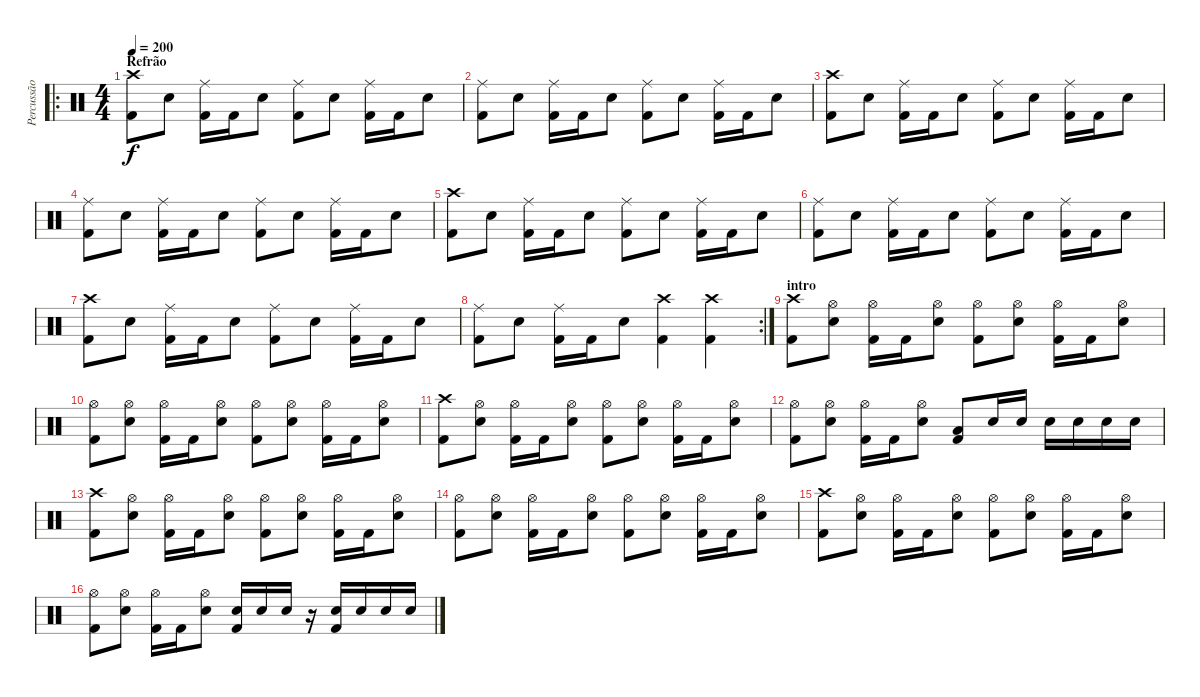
\track ("Percussão" "Percussão") {instrument percussion}
\staff {score}
\articulation defaults
\ro
\ts (4 4)
\section ("" "Refrão")
\tempo 200
\clef neutral
\ks c
("Crash high (hit)" "Kick (hit) 2").8{dy f} "Snare (hit) 2".8 ("Ride (middle)" "Kick (hit) 2").16 "Kick (hit) 2".16 "Snare (hit) 2".8 ("Ride (middle)" "Kick (hit) 2").8 "Snare (hit) 2".8 ("Ride (middle)" "Kick (hit) 2").16 "Kick (hit) 2".16 "Snare (hit) 2".8 |
("Ride (middle)" "Kick (hit) 2").8 "Snare (hit) 2".8 ("Ride (middle)" "Kick (hit) 2").16 "Kick (hit) 2".16 "Snare (hit) 2".8 ("Ride (middle)" "Kick (hit) 2").8 "Snare (hit) 2".8 ("Ride (middle)" "Kick (hit) 2").16 "Kick (hit) 2".16 "Snare (hit) 2".8 |
("Crash high (hit)" "Kick (hit) 2").8 "Snare (hit) 2".8 ("Ride (middle)" "Kick (hit) 2").16 "Kick (hit) 2".16 "Snare (hit) 2".8 ("Ride (middle)" "Kick (hit) 2").8 "Snare (hit) 2".8 ("Ride (middle)" "Kick (hit) 2").16 "Kick (hit) 2".16 "Snare (hit) 2".8 |
("Ride (middle)" "Kick (hit) 2").8 "Snare (hit) 2".8 ("Ride (middle)" "Kick (hit) 2").16 "Kick (hit) 2".16 "Snare (hit) 2".8 ("Ride (middle)" "Kick (hit) 2").8 "Snare (hit) 2".8 ("Ride (middle)" "Kick (hit) 2").16 "Kick (hit) 2".16 "Snare (hit) 2".8 |
("Crash high (hit)" "Kick (hit) 2").8 "Snare (hit) 2".8 ("Ride (middle)" "Kick (hit) 2").16 "Kick (hit) 2".16 "Snare (hit) 2".8 ("Ride (middle)" "Kick (hit) 2").8 "Snare (hit) 2".8 ("Ride (middle)" "Kick (hit) 2").16 "Kick (hit) 2".16 "Snare (hit) 2".8 |
("Ride (middle)" "Kick (hit) 2").8 "Snare (hit) 2".8 ("Ride (middle)" "Kick (hit) 2").16 "Kick (hit) 2".16 "Snare (hit) 2".8 ("Ride (middle)" "Kick (hit) 2").8 "Snare (hit) 2".8 ("Ride (middle)" "Kick (hit) 2").16 "Kick (hit) 2".16 "Snare (hit) 2".8 |
("Crash high (hit)" "Kick (hit) 2").8 "Snare (hit) 2".8 ("Ride (middle)" "Kick (hit) 2").16 "Kick (hit) 2".16 "Snare (hit) 2".8 ("Ride (middle)" "Kick (hit) 2").8 "Snare (hit) 2".8 ("Ride (middle)" "Kick (hit) 2").16 "Kick (hit) 2".16 "Snare (hit) 2".8 |
\rc 2
("Ride (middle)" "Kick (hit) 2").8 "Snare (hit) 2".8 ("Ride (middle)" "Kick (hit) 2").16 "Kick (hit) 2".16 "Snare (hit) 2".8 ("Crash high (hit)" "Kick (hit) 2").4 ("Crash high (hit)" "Kick (hit) 2").4 |
\section ("" "intro")
("Crash high (hit)" "Kick (hit) 2").8 ("Hi-Hat (open)" "Snare (hit) 2").8 ("Hi-Hat (open)" "Kick (hit) 2").16 "Kick (hit) 2".16 ("Hi-Hat (open)" "Snare (hit) 2").8 ("Hi-Hat (open)" "Kick (hit) 2").8 ("Hi-Hat (open)" "Snare (hit) 2").8 ("Hi-Hat (open)" "Kick (hit) 2").16 "Kick (hit) 2".16 ("Hi-Hat (open)" "Snare (hit) 2").8 |
("Hi-Hat (open)" "Kick (hit) 2").8 ("Hi-Hat (open)" "Snare (hit) 2").8 ("Hi-Hat (open)" "Kick (hit) 2").16 "Kick (hit) 2".16 ("Hi-Hat (open)" "Snare (hit) 2").8 ("Hi-Hat (open)" "Kick (hit) 2").8 ("Hi-Hat (open)" "Snare (hit) 2").8 ("Hi-Hat (open)" "Kick (hit) 2").16 "Kick (hit) 2".16 ("Hi-Hat (open)" "Snare (hit) 2").8 |
("Crash high (hit)" "Kick (hit) 2").8 ("Hi-Hat (open)" "Snare (hit) 2").8 ("Hi-Hat (open)" "Kick (hit) 2").16 "Kick (hit) 2".16 ("Hi-Hat (open)" "Snare (hit) 2").8 ("Hi-Hat (open)" "Kick (hit) 2").8 ("Hi-Hat (open)" "Snare (hit) 2").8 ("Hi-Hat (open)" "Kick (hit) 2").16 "Kick (hit) 2".16 ("Hi-Hat (open)" "Snare (hit) 2").8 |
("Hi-Hat (open)" "Kick (hit) 2").8 ("Hi-Hat (open)" "Snare (hit) 2").8 ("Hi-Hat (open)" "Kick (hit) 2").16 "Kick (hit) 2".16 ("Hi-Hat (open)" "Snare (hit) 2").8 ("Low Tom (hit)" "Kick (hit) 2").8 "Snare (hit) 2".16 "Snare (hit) 2".16 "Snare (hit) 2".16 "Snare (hit) 2".16 "Snare (hit) 2".16 "Snare (hit) 2".16 |
("Crash high (hit)" "Kick (hit) 2").8 ("Hi-Hat (open)" "Snare (hit) 2").8 ("Hi-Hat (open)" "Kick (hit) 2").16 "Kick (hit) 2".16 ("Hi-Hat (open)" "Snare (hit) 2").8 ("Hi-Hat (open)" "Kick (hit) 2").8 ("Hi-Hat (open)" "Snare (hit) 2").8 ("Hi-Hat (open)" "Kick (hit) 2").16 "Kick (hit) 2".16 ("Hi-Hat (open)" "Snare (hit) 2").8 |
("Hi-Hat (open)" "Kick (hit) 2").8 ("Hi-Hat (open)" "Snare (hit) 2").8 ("Hi-Hat (open)" "Kick (hit) 2").16 "Kick (hit) 2".16 ("Hi-Hat (open)" "Snare (hit) 2").8 ("Hi-Hat (open)" "Kick (hit) 2").8 ("Hi-Hat (open)" "Snare (hit) 2").8 ("Hi-Hat (open)" "Kick (hit) 2").16 "Kick (hit) 2".16 ("Hi-Hat (open)" "Snare (hit) 2").8 |
("Crash high (hit)" "Kick (hit) 2").8 ("Hi-Hat (open)" "Snare (hit) 2").8 ("Hi-Hat (open)" "Kick (hit) 2").16 "Kick (hit) 2".16 ("Hi-Hat (open)" "Snare (hit) 2").8 ("Hi-Hat (open)" "Kick (hit) 2").8 ("Hi-Hat (open)" "Snare (hit) 2").8 ("Hi-Hat (open)" "Kick (hit) 2").16 "Kick (hit) 2".16 ("Hi-Hat (open)" "Snare (hit) 2").8 |
("Hi-Hat (open)" "Kick (hit) 2").8 ("Hi-Hat (open)" "Snare (hit) 2").8 ("Hi-Hat (open)" "Kick (hit) 2").16 "Kick (hit) 2".16 ("Hi-Hat (open)" "Snare (hit) 2").8 ("Snare (hit) 2" "Kick (hit) 2").16 "Snare (hit) 2".16 "Snare (hit) 2".16 r.16 ("Snare (hit) 2" "Kick (hit) 2").16 "Snare (hit) 2".16 "Snare (hit) 2".16 "Snare (hit) 2".16
